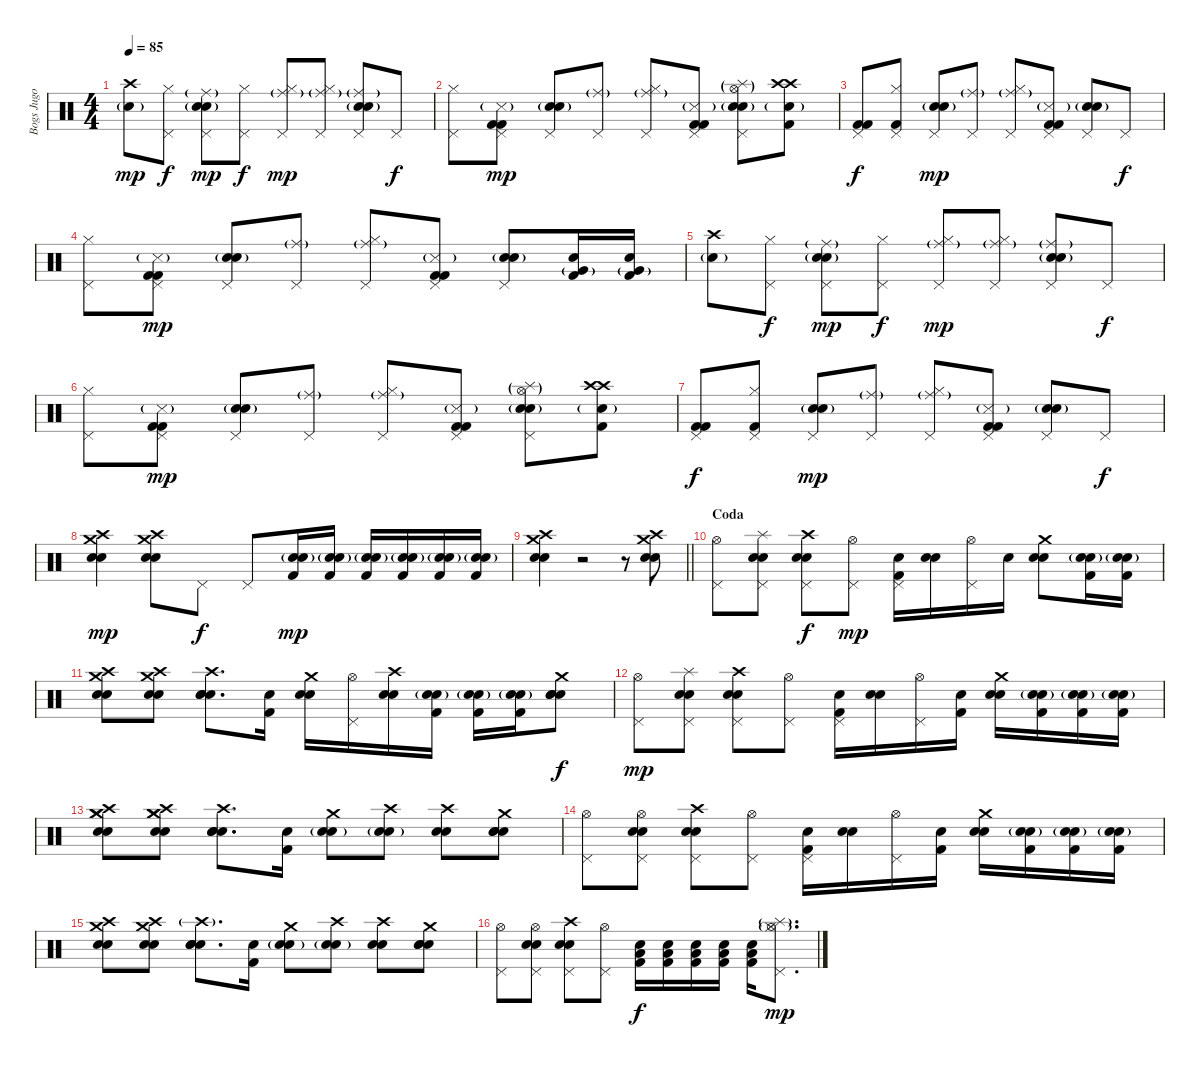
\track ("Bogs Jugo" "Bogs Jugo") {instrument percussion}
\staff {score}
\articulation defaults
\ts (4 4)
\tempo 85
\clef neutral
\ks c
("Crash high (hit)" "Electric Snare (hit)"{g}).8{dy mp} ("Pedal Hi-Hat (hit)" "Hi-Hat (closed)").8{dy f} ("Pedal Hi-Hat (hit)" "Electric Snare (hit)" "Snare (hit) 2"{g} "Ride (middle)"{g}).8{dy mp} ("Pedal Hi-Hat (hit)" "Hi-Hat (closed)").8{dy f} ("Pedal Hi-Hat (hit)" "Hi-Hat (closed)" "Ride (middle)"{g}).8{dy mp} ("Pedal Hi-Hat (hit)" "Hi-Hat (closed)" "Ride (middle)"{g}).8 ("Pedal Hi-Hat (hit)" "Electric Snare (hit)" "Snare (hit) 2"{g} "Ride (middle)"{g}).8 "Pedal Hi-Hat (hit)".8{dy f} |
("Pedal Hi-Hat (hit)" "Hi-Hat (closed)").8 ("Pedal Hi-Hat (hit)" "Kick (hit) 2" "Kick (hit) 2" "Snare (side stick) 3"{g}).8{dy mp} ("Pedal Hi-Hat (hit)" "Electric Snare (hit)" "Snare (hit) 2"{g}).8 ("Pedal Hi-Hat (hit)" "Ride (middle)"{g}).8 ("Pedal Hi-Hat (hit)" "Hi-Hat (closed)" "Ride (middle)"{g}).8 ("Pedal Hi-Hat (hit)" "Kick (hit) 2" "Kick (hit) 2" "Snare (side stick) 3"{g}).8 ("Pedal Hi-Hat (hit)" "Electric Snare (hit)" "Snare (hit) 2"{g} "Splash (hit)"{g} "Hi-Hat (open)"{g}).8 ("Crash high (hit)" "Crash high (hit)" "Electric Snare (hit)"{g} "Kick (hit) 2").8 |
("Pedal Hi-Hat (hit)" "Kick (hit) 2" "Kick (hit) 2").8{dy f} ("Pedal Hi-Hat (hit)" "Hi-Hat (closed)" "Kick (hit) 2").8 ("Pedal Hi-Hat (hit)" "Electric Snare (hit)" "Snare (hit) 2"{g}).8{dy mp} ("Pedal Hi-Hat (hit)" "Ride (middle)"{g}).8 ("Pedal Hi-Hat (hit)" "Hi-Hat (closed)" "Ride (middle)"{g}).8 ("Pedal Hi-Hat (hit)" "Kick (hit) 2" "Kick (hit) 2" "Snare (side stick) 3"{g}).8 ("Pedal Hi-Hat (hit)" "Electric Snare (hit)" "Snare (hit) 2"{g}).8 "Pedal Hi-Hat (hit)".8{dy f} |
("Pedal Hi-Hat (hit)" "Hi-Hat (closed)").8 ("Pedal Hi-Hat (hit)" "Kick (hit) 2" "Kick (hit) 2" "Snare (side stick) 3"{g}).8{dy mp} ("Pedal Hi-Hat (hit)" "Electric Snare (hit)" "Snare (hit) 2"{g}).8 ("Pedal Hi-Hat (hit)" "Ride (middle)"{g}).8 ("Pedal Hi-Hat (hit)" "Hi-Hat (closed)" "Ride (middle)"{g}).8 ("Pedal Hi-Hat (hit)" "Kick (hit) 2" "Kick (hit) 2" "Snare (side stick) 3"{g}).8 ("Pedal Hi-Hat (hit)" "Electric Snare (hit)" "Snare (hit) 2"{g}).8 ("Kick (hit) 2" "Electric Snare (hit)" "Very Low Tom (hit)"{g}).16 ("Kick (hit) 2" "Electric Snare (hit)" "Very Low Tom (hit)"{g}).16 |
("Crash high (hit)" "Electric Snare (hit)"{g}).8 ("Pedal Hi-Hat (hit)" "Hi-Hat (closed)").8{dy f} ("Pedal Hi-Hat (hit)" "Electric Snare (hit)" "Snare (hit) 2"{g} "Ride (middle)"{g}).8{dy mp} ("Pedal Hi-Hat (hit)" "Hi-Hat (closed)").8{dy f} ("Pedal Hi-Hat (hit)" "Hi-Hat (closed)" "Ride (middle)"{g}).8{dy mp} ("Pedal Hi-Hat (hit)" "Hi-Hat (closed)" "Ride (middle)"{g}).8 ("Pedal Hi-Hat (hit)" "Electric Snare (hit)" "Snare (hit) 2"{g} "Ride (middle)"{g}).8 "Pedal Hi-Hat (hit)".8{dy f} |
("Pedal Hi-Hat (hit)" "Hi-Hat (closed)").8 ("Pedal Hi-Hat (hit)" "Kick (hit) 2" "Kick (hit) 2" "Snare (side stick) 3"{g}).8{dy mp} ("Pedal Hi-Hat (hit)" "Electric Snare (hit)" "Snare (hit) 2"{g}).8 ("Pedal Hi-Hat (hit)" "Ride (middle)"{g}).8 ("Pedal Hi-Hat (hit)" "Hi-Hat (closed)" "Ride (middle)"{g}).8 ("Pedal Hi-Hat (hit)" "Kick (hit) 2" "Kick (hit) 2" "Snare (side stick) 3"{g}).8 ("Pedal Hi-Hat (hit)" "Electric Snare (hit)" "Snare (hit) 2"{g} "Splash (hit)"{g} "Hi-Hat (open)"{g}).8 ("Crash high (hit)" "Crash high (hit)" "Electric Snare (hit)"{g} "Kick (hit) 2").8 |
("Pedal Hi-Hat (hit)" "Kick (hit) 2" "Kick (hit) 2").8{dy f} ("Pedal Hi-Hat (hit)" "Hi-Hat (closed)" "Kick (hit) 2").8 ("Pedal Hi-Hat (hit)" "Electric Snare (hit)" "Snare (hit) 2"{g}).8{dy mp} ("Pedal Hi-Hat (hit)" "Ride (middle)"{g}).8 ("Pedal Hi-Hat (hit)" "Hi-Hat (closed)" "Ride (middle)"{g}).8 ("Pedal Hi-Hat (hit)" "Kick (hit) 2" "Kick (hit) 2" "Snare (side stick) 3"{g}).8 ("Pedal Hi-Hat (hit)" "Electric Snare (hit)" "Snare (hit) 2"{g}).8 "Pedal Hi-Hat (hit)".8{dy f} |
("Crash medium (hit)" "Crash high (hit)" "Snare (hit) 2" "Electric Snare (hit)").4{dy mp} ("Crash medium (hit)" "Crash high (hit)" "Snare (hit) 2" "Electric Snare (hit)").8 "Pedal Hi-Hat (hit)".8{dy f} "Pedal Hi-Hat (hit)".8 ("Electric Snare (hit)" "Snare (hit) 2"{g} "Kick (hit) 2").16{dy mp} ("Electric Snare (hit)" "Snare (hit) 2"{g} "Kick (hit) 2").16 ("Electric Snare (hit)" "Snare (hit) 2"{g} "Kick (hit) 2").16 ("Electric Snare (hit)" "Snare (hit) 2"{g} "Kick (hit) 2").16 ("Electric Snare (hit)" "Snare (hit) 2"{g} "Kick (hit) 2").16 ("Electric Snare (hit)" "Snare (hit) 2"{g} "Kick (hit) 2").16 |
\barLineRight lightlight
("Crash medium (hit)" "Crash high (hit)" "Snare (hit) 2" "Electric Snare (hit)").4 r.2 r.8 ("Crash high (hit)" "Crash medium (hit)" "Electric Snare (hit)" "Snare (hit) 2").8 |
\section ("" "Coda")
("Pedal Hi-Hat (hit)" "Hi-Hat (open)").8 ("Pedal Hi-Hat (hit)" "Electric Snare (hit)" "Snare (hit) 2" "Splash (hit)").8 ("Pedal Hi-Hat (hit)" "Electric Snare (hit)" "Electric Snare (hit)" "Crash high (hit)").8{dy f} ("Pedal Hi-Hat (hit)" "Hi-Hat (open)").8{dy mp} ("Pedal Hi-Hat (hit)" "Electric Snare (hit)" "Kick (hit) 2").16 ("Electric Snare (hit)" "Snare (hit) 2").16 ("Pedal Hi-Hat (hit)" "Hi-Hat (open)").16 "Electric Snare (hit)".16 ("Crash medium (hit)" "Electric Snare (hit)" "Snare (hit) 2").8 ("Electric Snare (hit)" "Snare (hit) 2"{g} "Kick (hit) 2").16 ("Electric Snare (hit)" "Snare (hit) 2"{g} "Kick (hit) 2").16 |
("Crash medium (hit)" "Electric Snare (hit)" "Snare (hit) 2" "Crash high (hit)").8 ("Crash high (hit)" "Electric Snare (hit)" "Snare (hit) 2" "Crash medium (hit)").8 ("Electric Snare (hit)" "Electric Snare (hit)" "Snare (hit) 2" "Crash high (hit)").8{d} ("Electric Snare (hit)" "Kick (hit) 2").16 ("Crash medium (hit)" "Electric Snare (hit)" "Snare (hit) 2").16 ("Pedal Hi-Hat (hit)" "Hi-Hat (open)").16 ("Crash high (hit)" "Electric Snare (hit)" "Snare (hit) 2").16 ("Electric Snare (hit)" "Snare (hit) 2"{g} "Kick (hit) 2").16 ("Electric Snare (hit)" "Snare (hit) 2"{g} "Kick (hit) 2").16 ("Electric Snare (hit)" "Snare (hit) 2"{g} "Kick (hit) 2").16 ("Electric Snare (hit)" "Electric Snare (hit)" "Snare (hit) 2" "Crash medium (hit)").8{dy f} |
("Pedal Hi-Hat (hit)" "Hi-Hat (open)").8{dy mp} ("Pedal Hi-Hat (hit)" "Electric Snare (hit)" "Snare (hit) 2" "Splash (hit)").8 ("Pedal Hi-Hat (hit)" "Electric Snare (hit)" "Electric Snare (hit)" "Crash high (hit)").8 ("Pedal Hi-Hat (hit)" "Hi-Hat (open)").8 ("Pedal Hi-Hat (hit)" "Electric Snare (hit)" "Kick (hit) 2").16 ("Electric Snare (hit)" "Snare (hit) 2").16 ("Pedal Hi-Hat (hit)" "Hi-Hat (open)").16 ("Electric Snare (hit)" "Kick (hit) 2").16 ("Crash medium (hit)" "Electric Snare (hit)" "Snare (hit) 2").16 ("Electric Snare (hit)" "Snare (hit) 2"{g} "Kick (hit) 2").16 ("Electric Snare (hit)" "Snare (hit) 2"{g} "Kick (hit) 2").16 ("Electric Snare (hit)" "Snare (hit) 2"{g} "Kick (hit) 2").16 |
("Crash medium (hit)" "Electric Snare (hit)" "Snare (hit) 2" "Crash medium (hit)" "Crash high (hit)").8 ("Crash medium (hit)" "Electric Snare (hit)" "Snare (hit) 2" "Crash medium (hit)" "Crash high (hit)").8 ("Electric Snare (hit)" "Electric Snare (hit)" "Snare (hit) 2" "Crash high (hit)").8{d} ("Electric Snare (hit)" "Kick (hit) 2").16 ("Crash medium (hit)" "Electric Snare (hit)" "Snare (hit) 2"{g}).8 ("Crash high (hit)" "Electric Snare (hit)" "Snare (hit) 2"{g}).8 ("Crash high (hit)" "Electric Snare (hit)" "Electric Snare (hit)").8 ("Electric Snare (hit)" "Electric Snare (hit)" "Snare (hit) 2" "Crash medium (hit)").8 |
("Pedal Hi-Hat (hit)" "Hi-Hat (open)").8 ("Pedal Hi-Hat (hit)" "Electric Snare (hit)" "Snare (hit) 2" "Hi-Hat (open)").8 ("Pedal Hi-Hat (hit)" "Electric Snare (hit)" "Electric Snare (hit)" "Crash high (hit)").8 ("Pedal Hi-Hat (hit)" "Hi-Hat (open)").8 ("Pedal Hi-Hat (hit)" "Electric Snare (hit)" "Kick (hit) 2").16 ("Electric Snare (hit)" "Snare (hit) 2").16 ("Pedal Hi-Hat (hit)" "Hi-Hat (open)").16 ("Electric Snare (hit)" "Kick (hit) 2").16 ("Crash medium (hit)" "Electric Snare (hit)" "Snare (hit) 2").16 ("Electric Snare (hit)" "Snare (hit) 2"{g} "Kick (hit) 2").16 ("Electric Snare (hit)" "Snare (hit) 2"{g} "Kick (hit) 2").16 ("Electric Snare (hit)" "Snare (hit) 2"{g} "Kick (hit) 2").16 |
("Crash medium (hit)" "Electric Snare (hit)" "Snare (hit) 2" "Crash high (hit)").8 ("Crash high (hit)" "Electric Snare (hit)" "Snare (hit) 2" "Crash medium (hit)").8 ("Electric Snare (hit)" "Electric Snare (hit)" "Snare (hit) 2" "Crash high (hit)"{g}).8{d} ("Electric Snare (hit)" "Kick (hit) 2").16 ("Crash medium (hit)" "Electric Snare (hit)" "Snare (hit) 2"{g}).8 ("Crash high (hit)" "Electric Snare (hit)" "Snare (hit) 2"{g}).8 ("Crash high (hit)" "Electric Snare (hit)" "Electric Snare (hit)").8 ("Electric Snare (hit)" "Electric Snare (hit)" "Snare (hit) 2" "Crash medium (hit)").8 |
("Pedal Hi-Hat (hit)" "Hi-Hat (open)").8 ("Pedal Hi-Hat (hit)" "Electric Snare (hit)" "Snare (hit) 2" "Hi-Hat (open)").8 ("Pedal Hi-Hat (hit)" "Electric Snare (hit)" "Electric Snare (hit)" "Crash high (hit)").8 ("Pedal Hi-Hat (hit)" "Hi-Hat (open)").8 ("Electric Snare (hit)" "Kick (hit) 2" "Low Floor Tom (hit)").16{dy f} ("Electric Snare (hit)" "Kick (hit) 2" "Low Floor Tom (hit)").16 ("Electric Snare (hit)" "Kick (hit) 2" "Low Floor Tom (hit)").16 ("Electric Snare (hit)" "Kick (hit) 2" "Low Floor Tom (hit)").16 ("Electric Snare (hit)" "Kick (hit) 2" "Low Floor Tom (hit)").16 ("Hi-Hat (closed)" "Pedal Hi-Hat (hit)" "Hi-Hat (open)"{g} "Splash (hit)"{g}).8{d dy mp}
